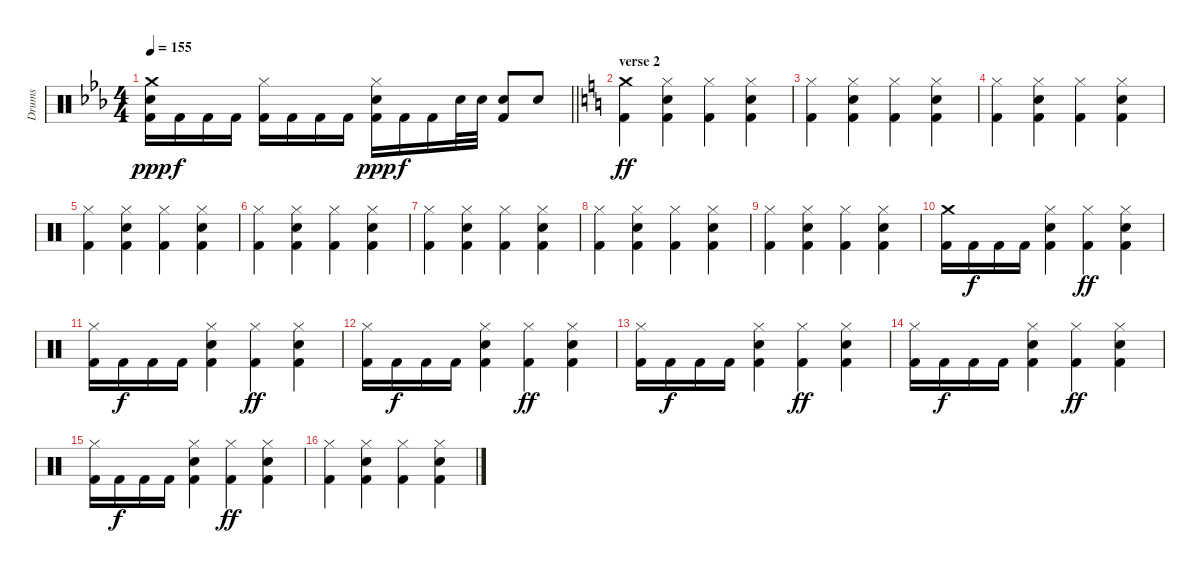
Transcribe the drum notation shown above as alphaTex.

\track ("Drums" "Drums") {instrument percussion}
\staff {score}
\articulation defaults
\ts (4 4)
\tempo 155
\clef neutral
\barLineRight lightlight
\ks cminor
("Crash medium (hit)" "Kick (hit) 2" "Electric Snare (hit)").16{dy ppp} "Kick (hit) 2".16{dy f} "Kick (hit) 2".16 "Kick (hit) 2".16 ("Hi-Hat (closed)" "Kick (hit) 2").16 "Kick (hit) 2".16 "Kick (hit) 2".16 "Kick (hit) 2".16 ("Hi-Hat (closed)" "Kick (hit) 2" "Electric Snare (hit)").16{dy ppp} "Kick (hit) 2".16{dy f} "Kick (hit) 2".16 "Electric Snare (hit)".32 "Electric Snare (hit)".32 ("Kick (hit) 2" "Electric Snare (hit)").8 "Electric Snare (hit)".8 |
\section ("" "verse 2")
\ks aminor
("Crash medium (hit)" "Kick (hit) 2").4{dy ff} ("Hi-Hat (closed)" "Electric Snare (hit)" "Kick (hit) 2").4 ("Hi-Hat (closed)" "Kick (hit) 2").4 ("Hi-Hat (closed)" "Electric Snare (hit)" "Kick (hit) 2").4 |
("Hi-Hat (closed)" "Kick (hit) 2").4 ("Hi-Hat (closed)" "Electric Snare (hit)" "Kick (hit) 2").4 ("Hi-Hat (closed)" "Kick (hit) 2").4 ("Hi-Hat (closed)" "Electric Snare (hit)" "Kick (hit) 2").4 |
("Hi-Hat (closed)" "Kick (hit) 2").4 ("Hi-Hat (closed)" "Electric Snare (hit)" "Kick (hit) 2").4 ("Hi-Hat (closed)" "Kick (hit) 2").4 ("Hi-Hat (closed)" "Electric Snare (hit)" "Kick (hit) 2").4 |
("Hi-Hat (closed)" "Kick (hit) 2").4 ("Hi-Hat (closed)" "Electric Snare (hit)" "Kick (hit) 2").4 ("Hi-Hat (closed)" "Kick (hit) 2").4 ("Hi-Hat (closed)" "Electric Snare (hit)" "Kick (hit) 2").4 |
("Hi-Hat (closed)" "Kick (hit) 2").4 ("Hi-Hat (closed)" "Electric Snare (hit)" "Kick (hit) 2").4 ("Hi-Hat (closed)" "Kick (hit) 2").4 ("Hi-Hat (closed)" "Electric Snare (hit)" "Kick (hit) 2").4 |
("Hi-Hat (closed)" "Kick (hit) 2").4 ("Hi-Hat (closed)" "Electric Snare (hit)" "Kick (hit) 2").4 ("Hi-Hat (closed)" "Kick (hit) 2").4 ("Hi-Hat (closed)" "Electric Snare (hit)" "Kick (hit) 2").4 |
("Hi-Hat (closed)" "Kick (hit) 2").4 ("Hi-Hat (closed)" "Electric Snare (hit)" "Kick (hit) 2").4 ("Hi-Hat (closed)" "Kick (hit) 2").4 ("Hi-Hat (closed)" "Electric Snare (hit)" "Kick (hit) 2").4 |
("Hi-Hat (closed)" "Kick (hit) 2").4 ("Hi-Hat (closed)" "Electric Snare (hit)" "Kick (hit) 2").4 ("Hi-Hat (closed)" "Kick (hit) 2").4 ("Hi-Hat (closed)" "Electric Snare (hit)" "Kick (hit) 2").4 |
("Crash medium (hit)" "Kick (hit) 2").16 "Kick (hit) 2".16{dy f} "Kick (hit) 2".16 "Kick (hit) 2".16 ("Hi-Hat (closed)" "Electric Snare (hit)" "Kick (hit) 2").4 ("Hi-Hat (closed)" "Kick (hit) 2").4{dy ff} ("Hi-Hat (closed)" "Electric Snare (hit)" "Kick (hit) 2").4 |
("Hi-Hat (closed)" "Kick (hit) 2").16 "Kick (hit) 2".16{dy f} "Kick (hit) 2".16 "Kick (hit) 2".16 ("Hi-Hat (closed)" "Electric Snare (hit)" "Kick (hit) 2").4 ("Hi-Hat (closed)" "Kick (hit) 2").4{dy ff} ("Hi-Hat (closed)" "Electric Snare (hit)" "Kick (hit) 2").4 |
("Hi-Hat (closed)" "Kick (hit) 2").16 "Kick (hit) 2".16{dy f} "Kick (hit) 2".16 "Kick (hit) 2".16 ("Hi-Hat (closed)" "Electric Snare (hit)" "Kick (hit) 2").4 ("Hi-Hat (closed)" "Kick (hit) 2").4{dy ff} ("Hi-Hat (closed)" "Electric Snare (hit)" "Kick (hit) 2").4 |
("Hi-Hat (closed)" "Kick (hit) 2").16 "Kick (hit) 2".16{dy f} "Kick (hit) 2".16 "Kick (hit) 2".16 ("Hi-Hat (closed)" "Electric Snare (hit)" "Kick (hit) 2").4 ("Hi-Hat (closed)" "Kick (hit) 2").4{dy ff} ("Hi-Hat (closed)" "Electric Snare (hit)" "Kick (hit) 2").4 |
("Hi-Hat (closed)" "Kick (hit) 2").16 "Kick (hit) 2".16{dy f} "Kick (hit) 2".16 "Kick (hit) 2".16 ("Hi-Hat (closed)" "Electric Snare (hit)" "Kick (hit) 2").4 ("Hi-Hat (closed)" "Kick (hit) 2").4{dy ff} ("Hi-Hat (closed)" "Electric Snare (hit)" "Kick (hit) 2").4 |
("Hi-Hat (closed)" "Kick (hit) 2").16 "Kick (hit) 2".16{dy f} "Kick (hit) 2".16 "Kick (hit) 2".16 ("Hi-Hat (closed)" "Electric Snare (hit)" "Kick (hit) 2").4 ("Hi-Hat (closed)" "Kick (hit) 2").4{dy ff} ("Hi-Hat (closed)" "Electric Snare (hit)" "Kick (hit) 2").4 |
("Hi-Hat (closed)" "Kick (hit) 2").4 ("Hi-Hat (closed)" "Electric Snare (hit)" "Kick (hit) 2").4 ("Hi-Hat (closed)" "Kick (hit) 2").4 ("Hi-Hat (closed)" "Electric Snare (hit)" "Kick (hit) 2").4
